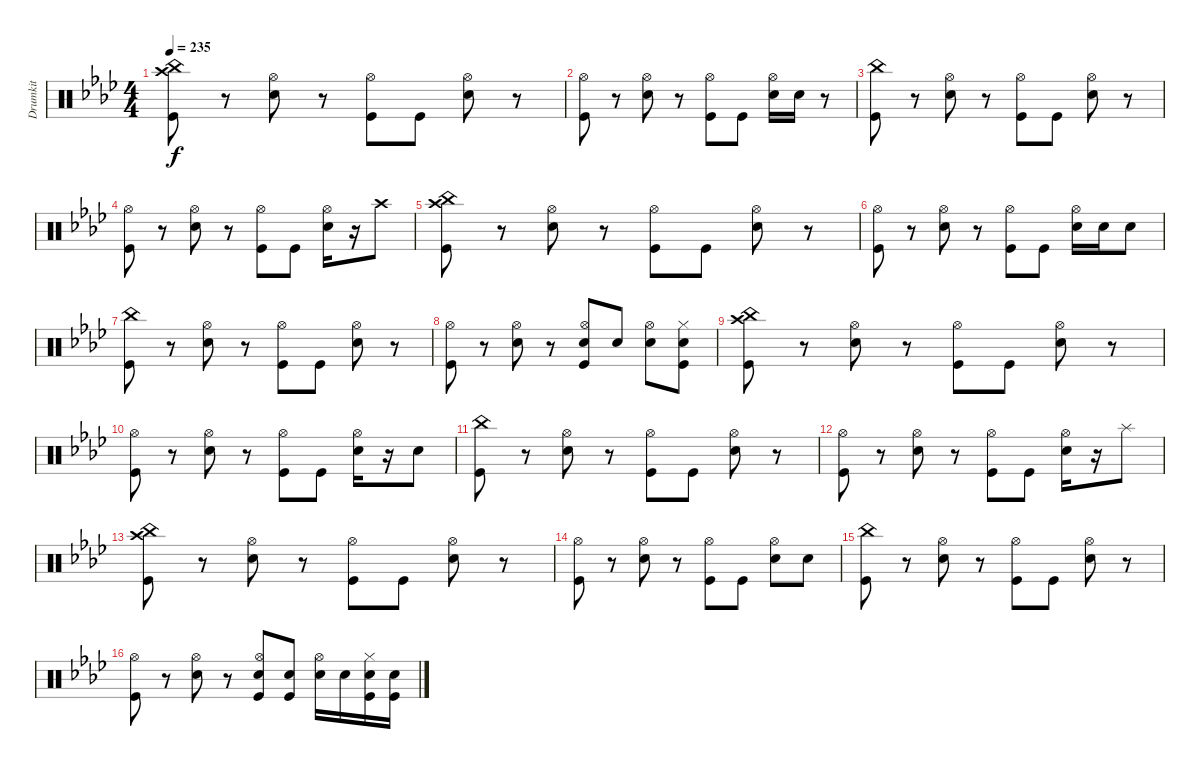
\track ("Drumkit" "Drumkit") {instrument percussion}
\staff {score}
\articulation defaults
\ts (4 4)
\tempo 235
\clef neutral
\ks ab
("Crash high (hit)" "China (hit)" "Kick (hit)").8{dy f} r.8 ("Hi-Hat (open)" "Electric Snare (hit)").8 r.8 ("Hi-Hat (open)" "Kick (hit)").8 "Kick (hit)".8 ("Hi-Hat (open)" "Electric Snare (hit)").8 r.8 |
("Hi-Hat (open)" "Kick (hit)").8 r.8 ("Hi-Hat (open)" "Electric Snare (hit)").8 r.8 ("Hi-Hat (open)" "Kick (hit)").8 "Kick (hit)".8 ("Hi-Hat (open)" "Electric Snare (hit)").16 "Electric Snare (hit)".16 r.8 |
("China (hit)" "Kick (hit)").8 r.8 ("Hi-Hat (open)" "Electric Snare (hit)").8 r.8 ("Hi-Hat (open)" "Kick (hit)").8 "Kick (hit)".8 ("Hi-Hat (open)" "Electric Snare (hit)").8 r.8 |
("Hi-Hat (open)" "Kick (hit)").8 r.8 ("Hi-Hat (open)" "Electric Snare (hit)").8 r.8 ("Hi-Hat (open)" "Kick (hit)").8 "Kick (hit)".8 ("Hi-Hat (open)" "Electric Snare (hit)").16 r.16 "Crash high (hit)".8 |
("Crash high (hit)" "China (hit)" "Kick (hit)").8 r.8 ("Hi-Hat (open)" "Electric Snare (hit)").8 r.8 ("Hi-Hat (open)" "Kick (hit)").8 "Kick (hit)".8 ("Hi-Hat (open)" "Electric Snare (hit)").8 r.8 |
("Hi-Hat (open)" "Kick (hit)").8 r.8 ("Hi-Hat (open)" "Electric Snare (hit)").8 r.8 ("Hi-Hat (open)" "Kick (hit)").8 "Kick (hit)".8 ("Hi-Hat (open)" "Electric Snare (hit)").16 "Electric Snare (hit)".16 "Electric Snare (hit)".8 |
("China (hit)" "Kick (hit)").8 r.8 ("Hi-Hat (open)" "Electric Snare (hit)").8 r.8 ("Hi-Hat (open)" "Kick (hit)").8 "Kick (hit)".8 ("Hi-Hat (open)" "Electric Snare (hit)").8 r.8 |
("Hi-Hat (open)" "Kick (hit)").8 r.8 ("Hi-Hat (open)" "Electric Snare (hit)").8 r.8 ("Hi-Hat (open)" "Electric Snare (hit)" "Kick (hit)").8 "Electric Snare (hit)".8 ("Hi-Hat (open)" "Electric Snare (hit)").8 ("Hi-Hat (closed)" "Electric Snare (hit)" "Kick (hit)").8 |
("Crash high (hit)" "China (hit)" "Kick (hit)").8 r.8 ("Hi-Hat (open)" "Electric Snare (hit)").8 r.8 ("Hi-Hat (open)" "Kick (hit)").8 "Kick (hit)".8 ("Hi-Hat (open)" "Electric Snare (hit)").8 r.8 |
("Hi-Hat (open)" "Kick (hit)").8 r.8 ("Hi-Hat (open)" "Electric Snare (hit)").8 r.8 ("Hi-Hat (open)" "Kick (hit)").8 "Kick (hit)".8 ("Hi-Hat (open)" "Electric Snare (hit)").16 r.16 "Electric Snare (hit)".8 |
("China (hit)" "Kick (hit)").8 r.8 ("Hi-Hat (open)" "Electric Snare (hit)").8 r.8 ("Hi-Hat (open)" "Kick (hit)").8 "Kick (hit)".8 ("Hi-Hat (open)" "Electric Snare (hit)").8 r.8 |
("Hi-Hat (open)" "Kick (hit)").8 r.8 ("Hi-Hat (open)" "Electric Snare (hit)").8 r.8 ("Hi-Hat (open)" "Kick (hit)").8 "Kick (hit)".8 ("Hi-Hat (open)" "Electric Snare (hit)").16 r.16 "Splash (hit)".8 |
("Crash high (hit)" "China (hit)" "Kick (hit)").8 r.8 ("Hi-Hat (open)" "Electric Snare (hit)").8 r.8 ("Hi-Hat (open)" "Kick (hit)").8 "Kick (hit)".8 ("Hi-Hat (open)" "Electric Snare (hit)").8 r.8 |
("Hi-Hat (open)" "Kick (hit)").8 r.8 ("Hi-Hat (open)" "Electric Snare (hit)").8 r.8 ("Hi-Hat (open)" "Kick (hit)").8 "Kick (hit)".8 ("Hi-Hat (open)" "Electric Snare (hit)").8 "Electric Snare (hit)".8 |
("China (hit)" "Kick (hit)").8 r.8 ("Hi-Hat (open)" "Electric Snare (hit)").8 r.8 ("Hi-Hat (open)" "Kick (hit)").8 "Kick (hit)".8 ("Hi-Hat (open)" "Electric Snare (hit)").8 r.8 |
("Hi-Hat (open)" "Kick (hit)").8 r.8 ("Hi-Hat (open)" "Electric Snare (hit)").8 r.8 ("Hi-Hat (open)" "Electric Snare (hit)" "Kick (hit)").8 ("Electric Snare (hit)" "Kick (hit)").8 ("Hi-Hat (open)" "Electric Snare (hit)").16 "Electric Snare (hit)".16 ("Hi-Hat (closed)" "Electric Snare (hit)" "Kick (hit)").16 ("Electric Snare (hit)" "Kick (hit)").16
